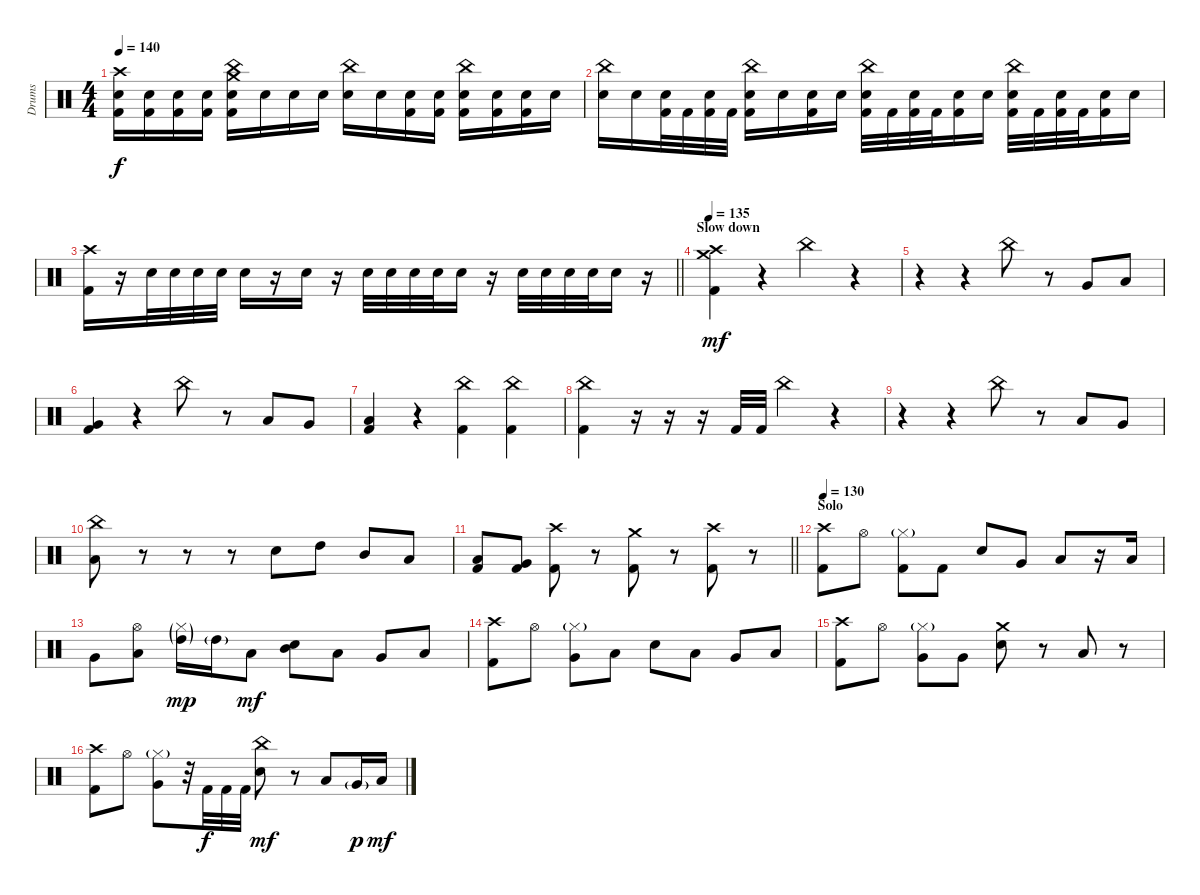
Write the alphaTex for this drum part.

\track ("Drums" "Drums") {instrument percussion}
\staff {score}
\articulation defaults
\ts (4 4)
\tempo 140
\clef neutral
\ks c
("Kick (hit) 2" "Electric Snare (hit)" "Crash high (hit)").16{dy f} ("Kick (hit) 2" "Electric Snare (hit)").16 ("Kick (hit) 2" "Electric Snare (hit)").16 ("Kick (hit) 2" "Electric Snare (hit)").16 ("Kick (hit) 2" "Electric Snare (hit)" "China (hit)" "Crash medium (hit)").16 "Electric Snare (hit)".16 "Electric Snare (hit)".16 "Electric Snare (hit)".16 ("Electric Snare (hit)" "China (hit)").16 "Electric Snare (hit)".16 ("Kick (hit) 2" "Electric Snare (hit)").16 ("Kick (hit) 2" "Electric Snare (hit)").16 ("Kick (hit) 2" "Electric Snare (hit)" "China (hit)").16 ("Kick (hit) 2" "Electric Snare (hit)").16 ("Kick (hit) 2" "Electric Snare (hit)").16 "Electric Snare (hit)".16 |
("Electric Snare (hit)" "China (hit)").16 "Electric Snare (hit)".16 ("Kick (hit) 2" "Electric Snare (hit)").32 "Kick (hit) 2".32 ("Kick (hit) 2" "Electric Snare (hit)").32 "Kick (hit) 2".32 ("Kick (hit) 2" "Electric Snare (hit)" "China (hit)").16 "Electric Snare (hit)".16 ("Kick (hit) 2" "Electric Snare (hit)").16 "Electric Snare (hit)".16 ("Kick (hit) 2" "Electric Snare (hit)" "China (hit)").32 "Kick (hit) 2".32 ("Kick (hit) 2" "Electric Snare (hit)").32 "Kick (hit) 2".32 ("Kick (hit) 2" "Electric Snare (hit)").16 "Electric Snare (hit)".16 ("Kick (hit) 2" "Electric Snare (hit)" "China (hit)").32 "Kick (hit) 2".32 ("Kick (hit) 2" "Electric Snare (hit)").32 "Kick (hit) 2".32 ("Kick (hit) 2" "Electric Snare (hit)").16 "Electric Snare (hit)".16 |
\barLineRight lightlight
("Kick (hit) 2" "Crash high (hit)").16 r.16 "Electric Snare (hit)".32 "Electric Snare (hit)".32 "Electric Snare (hit)".32 "Electric Snare (hit)".32 "Electric Snare (hit)".16 r.16 "Electric Snare (hit)".16 r.16 "Electric Snare (hit)".32 "Electric Snare (hit)".32 "Electric Snare (hit)".32 "Electric Snare (hit)".32 "Electric Snare (hit)".16 r.16 "Electric Snare (hit)".32 "Electric Snare (hit)".32 "Electric Snare (hit)".32 "Electric Snare (hit)".32 "Electric Snare (hit)".16 r.16 |
\section ("" "Slow down")
\tempo 135
("Kick (hit) 2" "Crash medium (hit)" "Crash high (hit)").4{dy mf} r.4 "China (hit)".4 r.4 |
r.4 r.4 "China (hit)".8 r.8 "Very Low Tom (hit)".8 "Low Tom (hit)".8 |
("Kick (hit) 2" "Very Low Tom (hit)").4 r.4 "China (hit)".8 r.8 "Low Floor Tom (hit)".8 "Very Low Tom (hit)".8 |
("Kick (hit) 2" "Low Floor Tom (hit)").4 r.4 ("China (hit)" "Kick (hit) 2").4 ("China (hit)" "Kick (hit) 2").4 |
("China (hit)" "Kick (hit) 2").4 r.16 r.16 r.16 "Kick (hit) 2".32 "Kick (hit) 2".32 "China (hit)".4 r.4 |
r.4 r.4 "China (hit)".8 r.8 "Low Tom (hit)".8 "Very Low Tom (hit)".8 |
("China (hit)" "Low Floor Tom (hit)").8 r.8 r.8 r.8 "Electric Snare (hit)".8 "High Tom (hit)".8 "Mid Tom (hit)".8 "Low Tom (hit)".8 |
\barLineRight lightlight
("Low Tom (hit)" "Kick (hit) 2").8 ("Very Low Tom (hit)" "Kick (hit) 2").8 ("Crash high (hit)" "Kick (hit) 2").8 r.8 ("Crash medium (hit)" "Kick (hit) 2").8 r.8 ("Crash high (hit)" "Kick (hit) 2").8 r.8 |
\section ("" "Solo")
\tempo 130
("Crash high (hit)" "Kick (hit) 2").8 "Hi-Hat (open)".8 ("Hi-Hat (closed)"{g} "Kick (hit) 2").8 "Kick (hit) 2".8 "Electric Snare (hit)".8 "Very Low Tom (hit)".8 "Low Floor Tom (hit)".8 r.16 "Low Tom (hit)".16 |
"Very Low Tom (hit)".8 ("Hi-Hat (open)" "Low Floor Tom (hit)").8 ("Hi-Hat (closed)"{g} "High Tom (hit)"{g}).16{dy mp} "High Tom (hit)"{g}.16 "Low Tom (hit)".8{dy mf} ("Electric Snare (hit)" "Mid Tom (hit)").8 "Low Tom (hit)".8 "Very Low Tom (hit)".8 "Low Floor Tom (hit)".8 |
("Crash high (hit)" "Kick (hit) 2").8 "Hi-Hat (open)".8 ("Hi-Hat (closed)"{g} "Very Low Tom (hit)").8 "Low Floor Tom (hit)".8 "Electric Snare (hit)".8 "Low Tom (hit)".8 "Very Low Tom (hit)".8 "Low Floor Tom (hit)".8 |
("Crash high (hit)" "Kick (hit) 2").8 "Hi-Hat (open)".8 ("Hi-Hat (closed)"{g} "Very Low Tom (hit)").8 "Very Low Tom (hit)".8 ("Crash medium (hit)" "Electric Snare (hit)").8 r.8 "Low Floor Tom (hit)".8 r.8 |
("Crash high (hit)" "Kick (hit) 2").8 "Hi-Hat (open)".8 ("Hi-Hat (closed)"{g} "Very Low Tom (hit)").8 r.32 "Kick (hit) 2".32{dy f} "Kick (hit) 2".32 "Kick (hit) 2".32 ("Electric Snare (hit)" "China (hit)").8{dy mf} r.8 "Low Tom (hit)".8 "Very Low Tom (hit)"{g}.16{dy p} "Low Floor Tom (hit)".16{dy mf}
